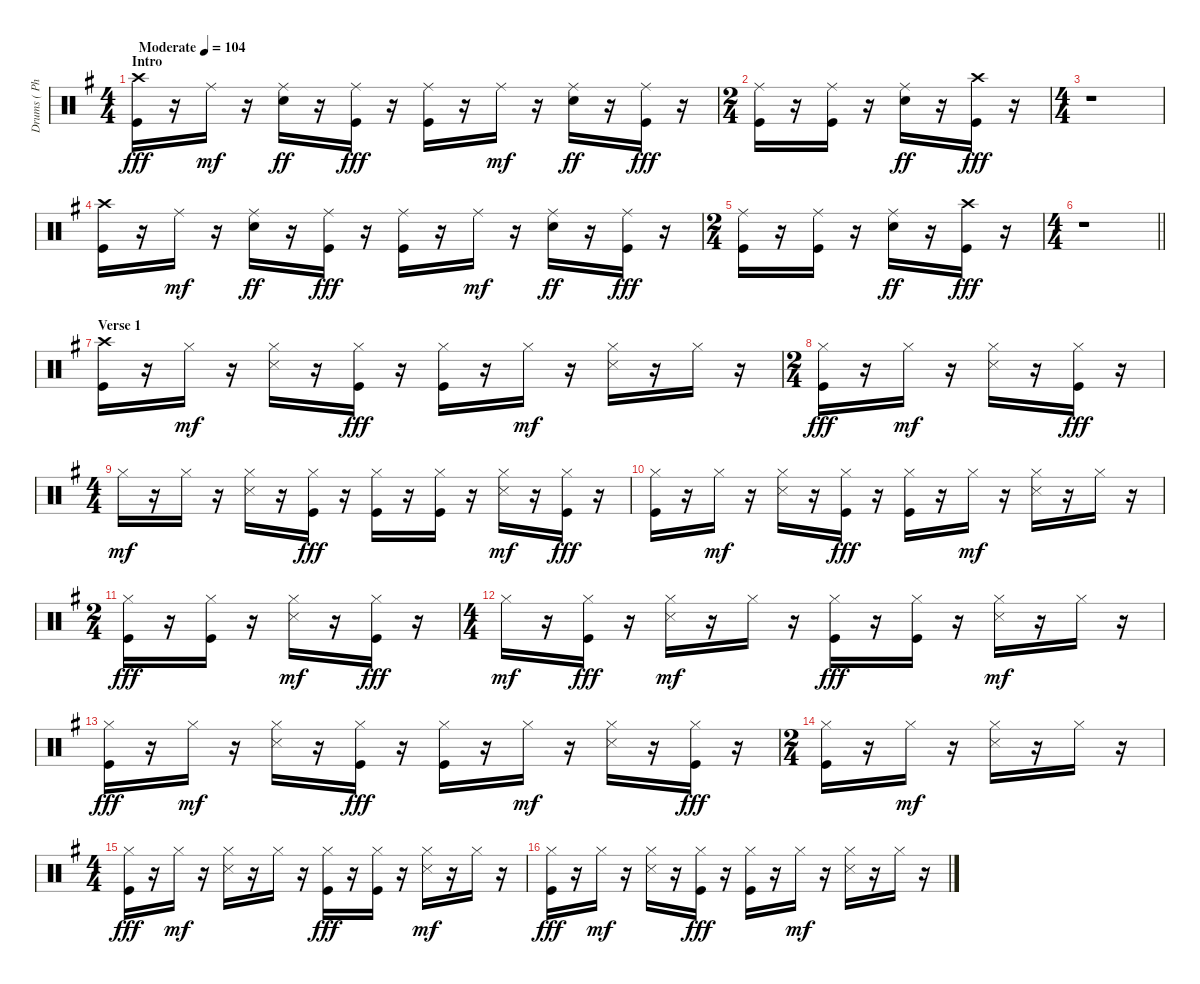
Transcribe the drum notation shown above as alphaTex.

\track ("Drums ( Phillip Selway)" "Drums ( Ph") {instrument percussion}
\staff {score}
\articulation defaults
\ts (4 4)
\section ("" "Intro")
\tempo (104 "Moderate")
\clef neutral
\ks eminor
("Crash high (hit)" "Kick (hit)").16{dy fff} r.16 "Ride (middle)".16{dy mf} r.16 ("Ride (middle)" "Electric Snare (hit)").16{dy ff} r.16 ("Ride (middle)" "Kick (hit)").16{dy fff} r.16 ("Ride (middle)" "Kick (hit)").16 r.16 "Ride (middle)".16{dy mf} r.16 ("Ride (middle)" "Electric Snare (hit)").16{dy ff} r.16 ("Ride (middle)" "Kick (hit)").16{dy fff} r.16 |
\ts (2 4)
("Ride (middle)" "Kick (hit)").16 r.16 ("Ride (middle)" "Kick (hit)").16 r.16 ("Ride (middle)" "Electric Snare (hit)").16{dy ff} r.16 ("Crash high (hit)" "Kick (hit)").16{dy fff} r.16 |
\ts (4 4)
r.1 |
("Crash high (hit)" "Kick (hit)").16 r.16 "Ride (middle)".16{dy mf} r.16 ("Ride (middle)" "Electric Snare (hit)").16{dy ff} r.16 ("Ride (middle)" "Kick (hit)").16{dy fff} r.16 ("Ride (middle)" "Kick (hit)").16 r.16 "Ride (middle)".16{dy mf} r.16 ("Ride (middle)" "Electric Snare (hit)").16{dy ff} r.16 ("Ride (middle)" "Kick (hit)").16{dy fff} r.16 |
\ts (2 4)
("Ride (middle)" "Kick (hit)").16 r.16 ("Ride (middle)" "Kick (hit)").16 r.16 ("Ride (middle)" "Electric Snare (hit)").16{dy ff} r.16 ("Crash high (hit)" "Kick (hit)").16{dy fff} r.16 |
\ts (4 4)
\barLineRight lightlight
r.1 |
\section ("" "Verse 1")
("Crash high (hit)" "Kick (hit)").16 r.16 "Hi-Hat (closed)".16{dy mf} r.16 ("Hi-Hat (closed)" "Snare (side stick) 3").16 r.16 ("Hi-Hat (closed)" "Kick (hit)").16{dy fff} r.16 ("Hi-Hat (closed)" "Kick (hit)").16 r.16 "Hi-Hat (closed)".16{dy mf} r.16 ("Hi-Hat (closed)" "Snare (side stick) 3").16 r.16 "Hi-Hat (closed)".16 r.16 |
\ts (2 4)
("Hi-Hat (closed)" "Kick (hit)").16{dy fff} r.16 "Hi-Hat (closed)".16{dy mf} r.16 ("Hi-Hat (closed)" "Snare (side stick) 3").16 r.16 ("Hi-Hat (closed)" "Kick (hit)").16{dy fff} r.16 |
\ts (4 4)
"Hi-Hat (closed)".16{dy mf} r.16 "Hi-Hat (closed)".16 r.16 ("Hi-Hat (closed)" "Snare (side stick) 3").16 r.16 ("Hi-Hat (closed)" "Kick (hit)").16{dy fff} r.16 ("Hi-Hat (closed)" "Kick (hit)").16 r.16 ("Hi-Hat (closed)" "Kick (hit)").16 r.16 ("Hi-Hat (closed)" "Snare (side stick) 3").16{dy mf} r.16 ("Hi-Hat (closed)" "Kick (hit)").16{dy fff} r.16 |
("Hi-Hat (closed)" "Kick (hit)").16 r.16 "Hi-Hat (closed)".16{dy mf} r.16 ("Hi-Hat (closed)" "Snare (side stick) 3").16 r.16 ("Hi-Hat (closed)" "Kick (hit)").16{dy fff} r.16 ("Hi-Hat (closed)" "Kick (hit)").16 r.16 "Hi-Hat (closed)".16{dy mf} r.16 ("Hi-Hat (closed)" "Snare (side stick) 3").16 r.16 "Hi-Hat (closed)".16 r.16 |
\ts (2 4)
("Hi-Hat (closed)" "Kick (hit)").16{dy fff} r.16 ("Hi-Hat (closed)" "Kick (hit)").16 r.16 ("Hi-Hat (closed)" "Snare (side stick) 3").16{dy mf} r.16 ("Hi-Hat (closed)" "Kick (hit)").16{dy fff} r.16 |
\ts (4 4)
"Hi-Hat (closed)".16{dy mf} r.16 ("Hi-Hat (closed)" "Kick (hit)").16{dy fff} r.16 ("Hi-Hat (closed)" "Snare (side stick) 3").16{dy mf} r.16 "Hi-Hat (closed)".16 r.16 ("Hi-Hat (closed)" "Kick (hit)").16{dy fff} r.16 ("Hi-Hat (closed)" "Kick (hit)").16 r.16 ("Hi-Hat (closed)" "Snare (side stick) 3").16{dy mf} r.16 "Hi-Hat (closed)".16 r.16 |
("Hi-Hat (closed)" "Kick (hit)").16{dy fff} r.16 "Hi-Hat (closed)".16{dy mf} r.16 ("Hi-Hat (closed)" "Snare (side stick) 3").16 r.16 ("Hi-Hat (closed)" "Kick (hit)").16{dy fff} r.16 ("Hi-Hat (closed)" "Kick (hit)").16 r.16 "Hi-Hat (closed)".16{dy mf} r.16 ("Hi-Hat (closed)" "Snare (side stick) 3").16 r.16 ("Hi-Hat (closed)" "Kick (hit)").16{dy fff} r.16 |
\ts (2 4)
("Hi-Hat (closed)" "Kick (hit)").16 r.16 "Hi-Hat (closed)".16{dy mf} r.16 ("Hi-Hat (closed)" "Snare (side stick) 3").16 r.16 "Hi-Hat (closed)".16 r.16 |
\ts (4 4)
("Hi-Hat (closed)" "Kick (hit)").16{dy fff} r.16 "Hi-Hat (closed)".16{dy mf} r.16 ("Hi-Hat (closed)" "Snare (side stick) 3").16 r.16 "Hi-Hat (closed)".16 r.16 ("Hi-Hat (closed)" "Kick (hit)").16{dy fff} r.16 ("Hi-Hat (closed)" "Kick (hit)").16 r.16 ("Hi-Hat (closed)" "Snare (side stick) 3").16{dy mf} r.16 "Hi-Hat (closed)".16 r.16 |
("Hi-Hat (closed)" "Kick (hit)").16{dy fff} r.16 "Hi-Hat (closed)".16{dy mf} r.16 ("Hi-Hat (closed)" "Snare (side stick) 3").16 r.16 ("Hi-Hat (closed)" "Kick (hit)").16{dy fff} r.16 ("Hi-Hat (closed)" "Kick (hit)").16 r.16 "Hi-Hat (closed)".16{dy mf} r.16 ("Hi-Hat (closed)" "Snare (side stick) 3").16 r.16 "Hi-Hat (closed)".16 r.16
